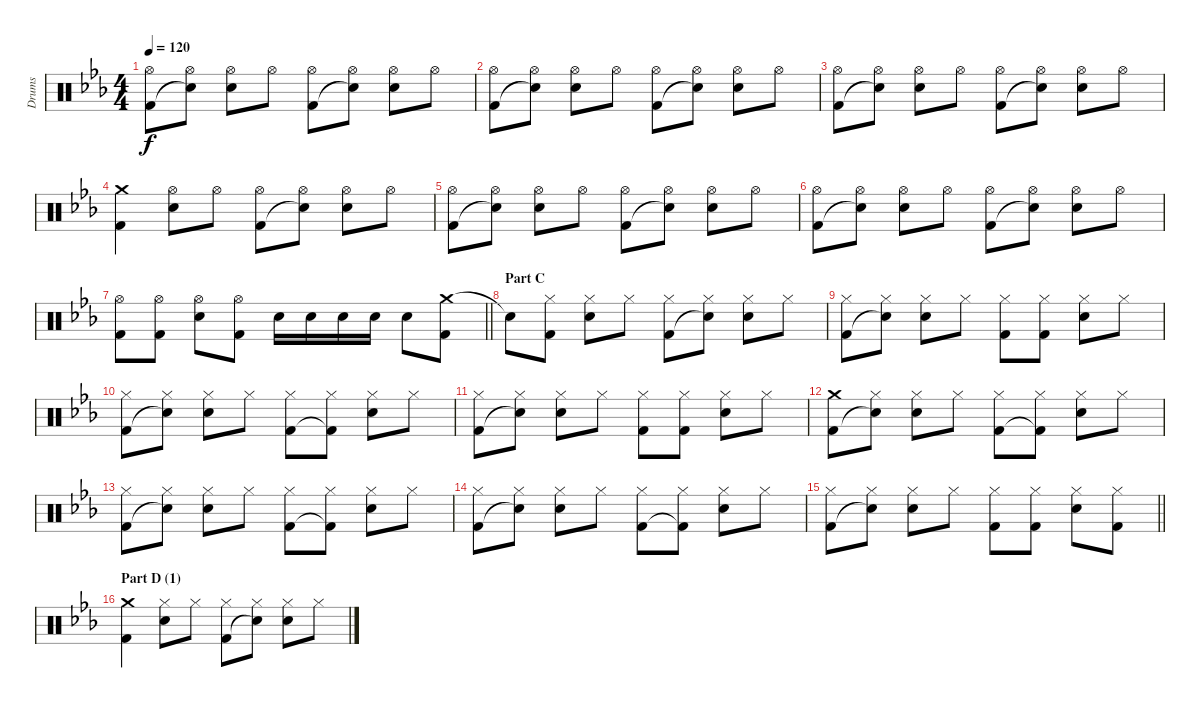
\track ("Drums" "Drums") {instrument percussion}
\staff {score}
\articulation defaults
\ts (4 4)
\tempo 120
\clef neutral
\ks eb
("Hi-Hat (open)" "Kick (hit) 2").8{dy f} ("Hi-Hat (open)" "Snare (hit)"{t}).8 ("Hi-Hat (open)" "Electric Snare (hit)").8 "Hi-Hat (open)".8 ("Hi-Hat (open)" "Kick (hit) 2").8 ("Hi-Hat (open)" "Snare (hit)"{t}).8 ("Hi-Hat (open)" "Electric Snare (hit)").8 "Hi-Hat (open)".8 |
("Hi-Hat (open)" "Kick (hit) 2").8 ("Hi-Hat (open)" "Snare (hit)"{t}).8 ("Hi-Hat (open)" "Electric Snare (hit)").8 "Hi-Hat (open)".8 ("Hi-Hat (open)" "Kick (hit) 2").8 ("Hi-Hat (open)" "Snare (hit)"{t}).8 ("Hi-Hat (open)" "Electric Snare (hit)").8 "Hi-Hat (open)".8 |
("Hi-Hat (open)" "Kick (hit) 2").8 ("Hi-Hat (open)" "Snare (hit)"{t}).8 ("Hi-Hat (open)" "Electric Snare (hit)").8 "Hi-Hat (open)".8 ("Hi-Hat (open)" "Kick (hit) 2").8 ("Hi-Hat (open)" "Snare (hit)"{t}).8 ("Hi-Hat (open)" "Electric Snare (hit)").8 "Hi-Hat (open)".8 |
("Crash medium (hit)" "Kick (hit) 2").4 ("Hi-Hat (open)" "Electric Snare (hit)").8 "Hi-Hat (open)".8 ("Hi-Hat (open)" "Kick (hit) 2").8 ("Hi-Hat (open)" "Snare (hit)"{t}).8 ("Hi-Hat (open)" "Electric Snare (hit)").8 "Hi-Hat (open)".8 |
("Hi-Hat (open)" "Kick (hit) 2").8 ("Hi-Hat (open)" "Snare (hit)"{t}).8 ("Hi-Hat (open)" "Electric Snare (hit)").8 "Hi-Hat (open)".8 ("Hi-Hat (open)" "Kick (hit) 2").8 ("Hi-Hat (open)" "Snare (hit)"{t}).8 ("Hi-Hat (open)" "Electric Snare (hit)").8 "Hi-Hat (open)".8 |
("Hi-Hat (open)" "Kick (hit) 2").8 ("Hi-Hat (open)" "Snare (hit)"{t}).8 ("Hi-Hat (open)" "Electric Snare (hit)").8 "Hi-Hat (open)".8 ("Hi-Hat (open)" "Kick (hit) 2").8 ("Hi-Hat (open)" "Snare (hit)"{t}).8 ("Hi-Hat (open)" "Electric Snare (hit)").8 "Hi-Hat (open)".8 |
\barLineRight lightlight
("Hi-Hat (open)" "Kick (hit) 2").8 ("Hi-Hat (open)" "Kick (hit) 2").8 ("Hi-Hat (open)" "Electric Snare (hit)").8 ("Hi-Hat (open)" "Kick (hit) 2").8 "Electric Snare (hit)".16 "Electric Snare (hit)".16 "Electric Snare (hit)".16 "Electric Snare (hit)".16 "Electric Snare (hit)".8 ("Crash medium (hit)" "Kick (hit) 2").8 |
\section ("" "Part C")
"Snare (hit)"{t}.8 ("Hi-Hat (closed)" "Kick (hit) 2").8 ("Hi-Hat (closed)" "Electric Snare (hit)").8 "Hi-Hat (closed)".8 ("Hi-Hat (closed)" "Kick (hit) 2").8 ("Hi-Hat (closed)" "Snare (hit)"{t}).8 ("Hi-Hat (closed)" "Electric Snare (hit)").8 "Hi-Hat (closed)".8 |
("Hi-Hat (closed)" "Kick (hit) 2").8 ("Hi-Hat (closed)" "Snare (hit)"{t}).8 ("Hi-Hat (closed)" "Electric Snare (hit)").8 "Hi-Hat (closed)".8 ("Hi-Hat (closed)" "Kick (hit) 2").8 ("Hi-Hat (closed)" "Kick (hit) 2").8 ("Hi-Hat (closed)" "Electric Snare (hit)").8 "Hi-Hat (closed)".8 |
("Hi-Hat (closed)" "Kick (hit) 2").8 ("Hi-Hat (closed)" "Snare (hit)"{t}).8 ("Hi-Hat (closed)" "Electric Snare (hit)").8 "Hi-Hat (closed)".8 ("Hi-Hat (closed)" "Kick (hit) 2").8 ("Hi-Hat (closed)" "Kick (hit) 2"{t}).8 ("Hi-Hat (closed)" "Electric Snare (hit)").8 "Hi-Hat (closed)".8 |
("Hi-Hat (closed)" "Kick (hit) 2").8 ("Hi-Hat (closed)" "Snare (hit)"{t}).8 ("Hi-Hat (closed)" "Electric Snare (hit)").8 "Hi-Hat (closed)".8 ("Hi-Hat (closed)" "Kick (hit) 2").8 ("Hi-Hat (closed)" "Kick (hit) 2").8 ("Hi-Hat (closed)" "Electric Snare (hit)").8 "Hi-Hat (closed)".8 |
("Crash medium (hit)" "Kick (hit) 2").8 ("Hi-Hat (closed)" "Snare (hit)"{t}).8 ("Hi-Hat (closed)" "Electric Snare (hit)").8 "Hi-Hat (closed)".8 ("Hi-Hat (closed)" "Kick (hit) 2").8 ("Hi-Hat (closed)" "Kick (hit) 2"{t}).8 ("Hi-Hat (closed)" "Electric Snare (hit)").8 "Hi-Hat (closed)".8 |
("Hi-Hat (closed)" "Kick (hit) 2").8 ("Hi-Hat (closed)" "Snare (hit)"{t}).8 ("Hi-Hat (closed)" "Electric Snare (hit)").8 "Hi-Hat (closed)".8 ("Hi-Hat (closed)" "Kick (hit) 2").8 ("Hi-Hat (closed)" "Kick (hit) 2"{t}).8 ("Hi-Hat (closed)" "Electric Snare (hit)").8 "Hi-Hat (closed)".8 |
("Hi-Hat (closed)" "Kick (hit) 2").8 ("Hi-Hat (closed)" "Snare (hit)"{t}).8 ("Hi-Hat (closed)" "Electric Snare (hit)").8 "Hi-Hat (closed)".8 ("Hi-Hat (closed)" "Kick (hit) 2").8 ("Hi-Hat (closed)" "Kick (hit) 2"{t}).8 ("Hi-Hat (closed)" "Electric Snare (hit)").8 "Hi-Hat (closed)".8 |
\barLineRight lightlight
("Hi-Hat (closed)" "Kick (hit) 2").8 ("Hi-Hat (closed)" "Snare (hit)"{t}).8 ("Hi-Hat (closed)" "Electric Snare (hit)").8 "Hi-Hat (closed)".8 ("Hi-Hat (closed)" "Kick (hit) 2").8 ("Hi-Hat (closed)" "Kick (hit) 2").8 ("Hi-Hat (closed)" "Electric Snare (hit)").8 ("Hi-Hat (closed)" "Kick (hit) 2").8 |
\section ("" "Part D (1)")
("Crash medium (hit)" "Kick (hit) 2").4 ("Hi-Hat (closed)" "Electric Snare (hit)").8 "Hi-Hat (closed)".8 ("Hi-Hat (closed)" "Kick (hit) 2").8 ("Hi-Hat (closed)" "Snare (hit)"{t}).8 ("Hi-Hat (closed)" "Electric Snare (hit)").8 "Hi-Hat (closed)".8
